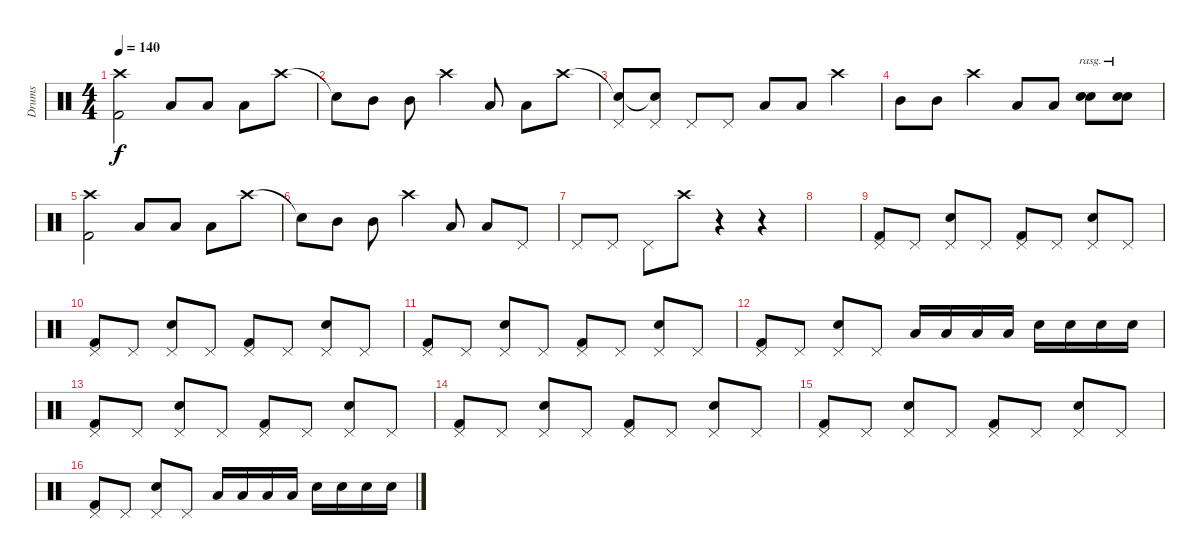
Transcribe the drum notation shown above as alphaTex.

\track ("Drums" "Drums") {instrument percussion}
\staff {score}
\articulation defaults
\ts (4 4)
\tempo 140
\clef neutral
\ks c
("Crash high (hit)" "Kick (hit) 2").2{dy f} "Low Tom (hit)".8 "Low Tom (hit)".8 "Low Tom (hit)".8 "Crash high (hit)".8 |
"Snare (hit)"{t}.8 "Mid Tom (hit)".8 "Mid Tom (hit)".8 "Crash high (hit)".4 "Low Floor Tom (hit)".8 "Low Floor Tom (hit)".8 "Crash high (hit)".8 |
("Snare (hit)"{t} "Pedal Hi-Hat (hit)").8 ("Snare (hit)"{t} "Pedal Hi-Hat (hit)").8 "Pedal Hi-Hat (hit)".8 "Pedal Hi-Hat (hit)".8 "Low Tom (hit)".8 "Low Tom (hit)".8 "Crash high (hit)".4 |
"Mid Tom (hit)".8 "Mid Tom (hit)".8 "Crash high (hit)".4 "Low Floor Tom (hit)".8 "Low Floor Tom (hit)".8 ("Snare (hit) 2" "Snare (hit) 2").8{bu 240 rasg ii} ("Snare (hit) 2" "Snare (hit) 2").8{bu 240 rasg ii} |
("Crash high (hit)" "Kick (hit) 2").2 "Low Tom (hit)".8 "Low Tom (hit)".8 "Low Tom (hit)".8 "Crash high (hit)".8 |
"Snare (hit)"{t}.8 "Mid Tom (hit)".8 "Mid Tom (hit)".8 "Crash high (hit)".4 "Low Floor Tom (hit)".8 "Low Floor Tom (hit)".8 "Pedal Hi-Hat (hit)".8 |
"Pedal Hi-Hat (hit)".8 "Pedal Hi-Hat (hit)".8 "Pedal Hi-Hat (hit)".8 "Crash high (hit)".8 r.4 r.4 |
|
("Pedal Hi-Hat (hit)" "Kick (hit) 2").8 "Pedal Hi-Hat (hit)".8 ("Pedal Hi-Hat (hit)" "Snare (hit) 2").8 "Pedal Hi-Hat (hit)".8 ("Pedal Hi-Hat (hit)" "Kick (hit) 2").8 "Pedal Hi-Hat (hit)".8 ("Pedal Hi-Hat (hit)" "Snare (hit) 2").8 "Pedal Hi-Hat (hit)".8 |
("Pedal Hi-Hat (hit)" "Kick (hit) 2").8 "Pedal Hi-Hat (hit)".8 ("Pedal Hi-Hat (hit)" "Snare (hit) 2").8 "Pedal Hi-Hat (hit)".8 ("Pedal Hi-Hat (hit)" "Kick (hit) 2").8 "Pedal Hi-Hat (hit)".8 ("Pedal Hi-Hat (hit)" "Snare (hit) 2").8 "Pedal Hi-Hat (hit)".8 |
("Pedal Hi-Hat (hit)" "Kick (hit) 2").8 "Pedal Hi-Hat (hit)".8 ("Pedal Hi-Hat (hit)" "Snare (hit) 2").8 "Pedal Hi-Hat (hit)".8 ("Pedal Hi-Hat (hit)" "Kick (hit) 2").8 "Pedal Hi-Hat (hit)".8 ("Pedal Hi-Hat (hit)" "Snare (hit) 2").8 "Pedal Hi-Hat (hit)".8 |
("Pedal Hi-Hat (hit)" "Kick (hit) 2").8 "Pedal Hi-Hat (hit)".8 ("Pedal Hi-Hat (hit)" "Snare (hit) 2").8 "Pedal Hi-Hat (hit)".8 "Low Tom (hit)".16 "Low Tom (hit)".16 "Low Tom (hit)".16 "Low Tom (hit)".16 "Snare (hit) 2".16 "Snare (hit) 2".16 "Snare (hit) 2".16 "Snare (hit) 2".16 |
("Pedal Hi-Hat (hit)" "Kick (hit) 2").8 "Pedal Hi-Hat (hit)".8 ("Pedal Hi-Hat (hit)" "Snare (hit) 2").8 "Pedal Hi-Hat (hit)".8 ("Pedal Hi-Hat (hit)" "Kick (hit) 2").8 "Pedal Hi-Hat (hit)".8 ("Pedal Hi-Hat (hit)" "Snare (hit) 2").8 "Pedal Hi-Hat (hit)".8 |
("Pedal Hi-Hat (hit)" "Kick (hit) 2").8 "Pedal Hi-Hat (hit)".8 ("Pedal Hi-Hat (hit)" "Snare (hit) 2").8 "Pedal Hi-Hat (hit)".8 ("Pedal Hi-Hat (hit)" "Kick (hit) 2").8 "Pedal Hi-Hat (hit)".8 ("Pedal Hi-Hat (hit)" "Snare (hit) 2").8 "Pedal Hi-Hat (hit)".8 |
("Pedal Hi-Hat (hit)" "Kick (hit) 2").8 "Pedal Hi-Hat (hit)".8 ("Pedal Hi-Hat (hit)" "Snare (hit) 2").8 "Pedal Hi-Hat (hit)".8 ("Pedal Hi-Hat (hit)" "Kick (hit) 2").8 "Pedal Hi-Hat (hit)".8 ("Pedal Hi-Hat (hit)" "Snare (hit) 2").8 "Pedal Hi-Hat (hit)".8 |
("Pedal Hi-Hat (hit)" "Kick (hit) 2").8 "Pedal Hi-Hat (hit)".8 ("Pedal Hi-Hat (hit)" "Snare (hit) 2").8 "Pedal Hi-Hat (hit)".8 "Low Tom (hit)".16 "Low Tom (hit)".16 "Low Tom (hit)".16 "Low Tom (hit)".16 "Snare (hit) 2".16 "Snare (hit) 2".16 "Snare (hit) 2".16 "Snare (hit) 2".16
